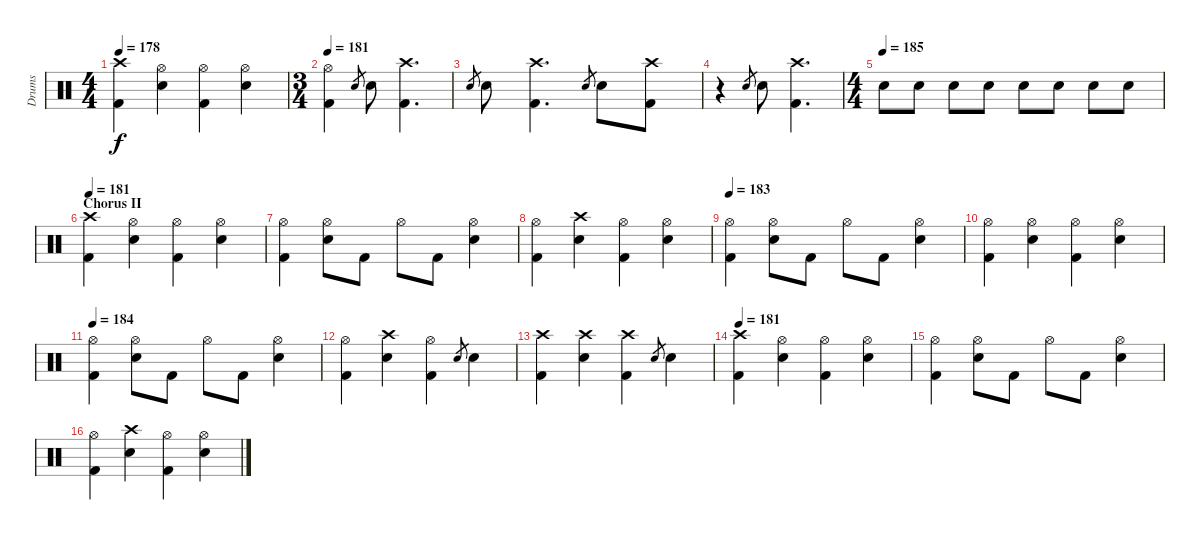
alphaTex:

\track ("Drums" "Drums") {instrument percussion}
\staff {score}
\articulation defaults
\ts (4 4)
\tempo 178
\clef neutral
\ks c
("Crash high (hit)" "Kick (hit) 2").4{dy f} ("Snare (hit) 2" "Hi-Hat (open)").4 ("Hi-Hat (open)" "Kick (hit) 2").4 ("Hi-Hat (open)" "Snare (hit) 2").4 |
\ts (3 4)
\tempo 181
("Kick (hit) 2" "Hi-Hat (open)").4 "Snare (hit)".8{gr} "Snare (hit) 2".8 ("Kick (hit) 2" "Crash high (hit)").4{d} |
"Snare (hit)".8{gr} "Snare (hit) 2".8 ("Kick (hit) 2" "Crash high (hit)").4{d} "Snare (hit)".8{gr} "Snare (hit) 2".8 ("Kick (hit) 2" "Crash high (hit)").8 |
r.4 "Snare (hit)".8{gr} "Snare (hit) 2".8 ("Kick (hit) 2" "Crash high (hit)").4{d} |
\ts (4 4)
\tempo (185)
"Snare (hit) 2".8 "Snare (hit) 2".8 "Snare (hit) 2".8 "Snare (hit) 2".8 "Snare (hit) 2".8 "Snare (hit) 2".8 "Snare (hit) 2".8 "Snare (hit) 2".8 |
\section ("" "Chorus II")
\tempo 181
("Crash high (hit)" "Kick (hit) 2").4 ("Snare (hit) 2" "Hi-Hat (open)").4 ("Hi-Hat (open)" "Kick (hit) 2").4 ("Hi-Hat (open)" "Snare (hit) 2").4 |
("Hi-Hat (open)" "Kick (hit) 2").4 ("Hi-Hat (open)" "Snare (hit) 2").8 "Kick (hit) 2".8 "Hi-Hat (open)".8 "Kick (hit) 2".8 ("Snare (hit) 2" "Hi-Hat (open)").4 |
("Kick (hit) 2" "Hi-Hat (open)").4 ("Snare (hit) 2" "Crash high (hit)").4 ("Hi-Hat (open)" "Kick (hit) 2").4 ("Hi-Hat (open)" "Snare (hit) 2").4 |
\tempo 183
("Hi-Hat (open)" "Kick (hit) 2").4 ("Hi-Hat (open)" "Snare (hit) 2").8 "Kick (hit) 2".8 "Hi-Hat (open)".8 "Kick (hit) 2".8 ("Snare (hit) 2" "Hi-Hat (open)").4 |
("Kick (hit) 2" "Hi-Hat (open)").4 ("Snare (hit) 2" "Hi-Hat (open)").4 ("Hi-Hat (open)" "Kick (hit) 2").4 ("Hi-Hat (open)" "Snare (hit) 2").4 |
\tempo 184
("Hi-Hat (open)" "Kick (hit) 2").4 ("Hi-Hat (open)" "Snare (hit) 2").8 "Kick (hit) 2".8 "Hi-Hat (open)".8 "Kick (hit) 2".8 ("Snare (hit) 2" "Hi-Hat (open)").4 |
("Kick (hit) 2" "Hi-Hat (open)").4 ("Snare (hit) 2" "Crash high (hit)").4 ("Hi-Hat (open)" "Kick (hit) 2").4 "Snare (hit)".8{gr} "Snare (hit) 2".4 |
("Kick (hit) 2" "Crash high (hit)").4 ("Snare (hit) 2" "Crash high (hit)").4 ("Kick (hit) 2" "Crash high (hit)").4 "Snare (hit)".8{gr} "Snare (hit) 2".4 |
\tempo 181
("Crash high (hit)" "Kick (hit) 2").4 ("Snare (hit) 2" "Hi-Hat (open)").4 ("Hi-Hat (open)" "Kick (hit) 2").4 ("Hi-Hat (open)" "Snare (hit) 2").4 |
("Hi-Hat (open)" "Kick (hit) 2").4 ("Hi-Hat (open)" "Snare (hit) 2").8 "Kick (hit) 2".8 "Hi-Hat (open)".8 "Kick (hit) 2".8 ("Snare (hit) 2" "Hi-Hat (open)").4 |
("Kick (hit) 2" "Hi-Hat (open)").4 ("Snare (hit) 2" "Crash high (hit)").4 ("Hi-Hat (open)" "Kick (hit) 2").4 ("Hi-Hat (open)" "Snare (hit) 2").4
